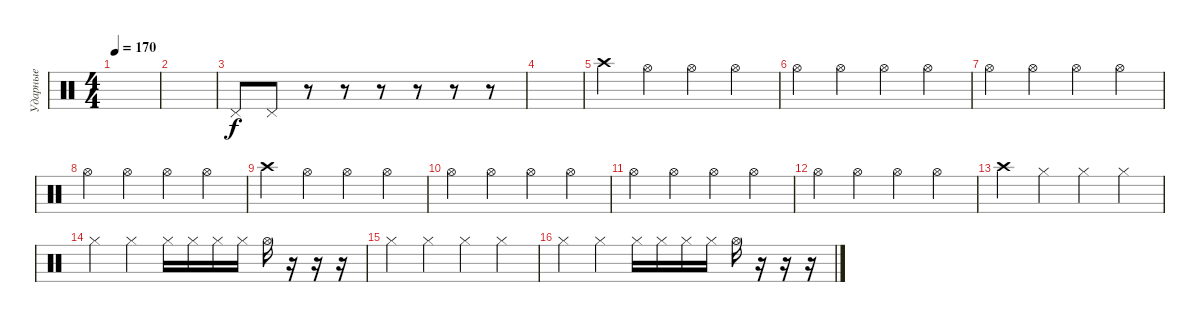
\track ("Ударные" "Ударные") {instrument percussion}
\staff {score}
\articulation defaults
\ts (4 4)
\tempo 170
\clef neutral
\ks c
|
|
"Pedal Hi-Hat (hit)".8 "Pedal Hi-Hat (hit)".8 r.8 r.8 r.8 r.8 r.8 r.8 |
|
"Crash high (hit)".4 "Hi-Hat (open)".4 "Hi-Hat (open)".4 "Hi-Hat (open)".4 |
"Hi-Hat (open)".4 "Hi-Hat (open)".4 "Hi-Hat (open)".4 "Hi-Hat (open)".4 |
"Hi-Hat (open)".4 "Hi-Hat (open)".4 "Hi-Hat (open)".4 "Hi-Hat (open)".4 |
"Hi-Hat (open)".4 "Hi-Hat (open)".4 "Hi-Hat (open)".4 "Hi-Hat (open)".4 |
"Crash high (hit)".4 "Hi-Hat (open)".4 "Hi-Hat (open)".4 "Hi-Hat (open)".4 |
"Hi-Hat (open)".4 "Hi-Hat (open)".4 "Hi-Hat (open)".4 "Hi-Hat (open)".4 |
"Hi-Hat (open)".4 "Hi-Hat (open)".4 "Hi-Hat (open)".4 "Hi-Hat (open)".4 |
"Hi-Hat (open)".4 "Hi-Hat (open)".4 "Hi-Hat (open)".4 "Hi-Hat (open)".4 |
"Crash high (hit)".4 "Hi-Hat (closed)".4 "Hi-Hat (closed)".4 "Hi-Hat (closed)".4 |
"Hi-Hat (closed)".4 "Hi-Hat (closed)".4 "Hi-Hat (closed)".16 "Hi-Hat (closed)".16 "Hi-Hat (closed)".16 "Hi-Hat (closed)".16 "Hi-Hat (open)".16 r.16 r.16 r.16 |
"Hi-Hat (closed)".4 "Hi-Hat (closed)".4 "Hi-Hat (closed)".4 "Hi-Hat (closed)".4 |
"Hi-Hat (closed)".4 "Hi-Hat (closed)".4 "Hi-Hat (closed)".16 "Hi-Hat (closed)".16 "Hi-Hat (closed)".16 "Hi-Hat (closed)".16 "Hi-Hat (open)".16 r.16 r.16 r.16
